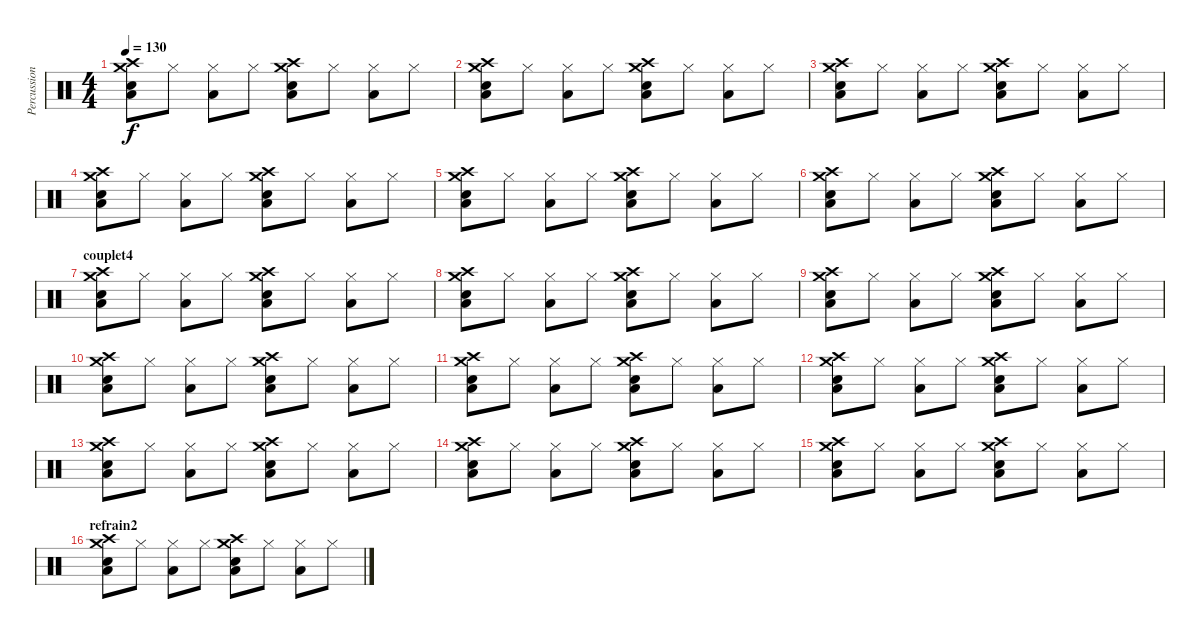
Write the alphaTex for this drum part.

\track ("Percussions" "Percussion") {instrument percussion}
\staff {score}
\articulation defaults
\ts (4 4)
\tempo 130
\clef neutral
\ks c
("Low Floor Tom (hit)" "Snare (hit) 2" "Crash high (hit)" "Crash medium (hit)").8{dy f} "Hi-Hat (closed)".8 ("Low Floor Tom (hit)" "Hi-Hat (closed)").8 "Hi-Hat (closed)".8 ("Low Floor Tom (hit)" "Snare (hit) 2" "Crash high (hit)" "Crash medium (hit)").8 "Hi-Hat (closed)".8 ("Low Floor Tom (hit)" "Hi-Hat (closed)").8 "Hi-Hat (closed)".8 |
("Low Floor Tom (hit)" "Snare (hit) 2" "Crash high (hit)" "Crash medium (hit)").8 "Hi-Hat (closed)".8 ("Low Floor Tom (hit)" "Hi-Hat (closed)").8 "Hi-Hat (closed)".8 ("Low Floor Tom (hit)" "Snare (hit) 2" "Crash high (hit)" "Crash medium (hit)").8 "Hi-Hat (closed)".8 ("Low Floor Tom (hit)" "Hi-Hat (closed)").8 "Hi-Hat (closed)".8 |
("Low Floor Tom (hit)" "Snare (hit) 2" "Crash high (hit)" "Crash medium (hit)").8 "Hi-Hat (closed)".8 ("Low Floor Tom (hit)" "Hi-Hat (closed)").8 "Hi-Hat (closed)".8 ("Low Floor Tom (hit)" "Snare (hit) 2" "Crash high (hit)" "Crash medium (hit)").8 "Hi-Hat (closed)".8 ("Low Floor Tom (hit)" "Hi-Hat (closed)").8 "Hi-Hat (closed)".8 |
("Low Floor Tom (hit)" "Snare (hit) 2" "Crash high (hit)" "Crash medium (hit)").8 "Hi-Hat (closed)".8 ("Low Floor Tom (hit)" "Hi-Hat (closed)").8 "Hi-Hat (closed)".8 ("Low Floor Tom (hit)" "Snare (hit) 2" "Crash high (hit)" "Crash medium (hit)").8 "Hi-Hat (closed)".8 ("Low Floor Tom (hit)" "Hi-Hat (closed)").8 "Hi-Hat (closed)".8 |
("Low Floor Tom (hit)" "Snare (hit) 2" "Crash high (hit)" "Crash medium (hit)").8 "Hi-Hat (closed)".8 ("Low Floor Tom (hit)" "Hi-Hat (closed)").8 "Hi-Hat (closed)".8 ("Low Floor Tom (hit)" "Snare (hit) 2" "Crash high (hit)" "Crash medium (hit)").8 "Hi-Hat (closed)".8 ("Low Floor Tom (hit)" "Hi-Hat (closed)").8 "Hi-Hat (closed)".8 |
("Low Floor Tom (hit)" "Snare (hit) 2" "Crash high (hit)" "Crash medium (hit)").8 "Hi-Hat (closed)".8 ("Low Floor Tom (hit)" "Hi-Hat (closed)").8 "Hi-Hat (closed)".8 ("Low Floor Tom (hit)" "Snare (hit) 2" "Crash high (hit)" "Crash medium (hit)").8 "Hi-Hat (closed)".8 ("Low Floor Tom (hit)" "Hi-Hat (closed)").8 "Hi-Hat (closed)".8 |
\section ("" "couplet4")
("Low Floor Tom (hit)" "Snare (hit) 2" "Crash high (hit)" "Crash medium (hit)").8 "Hi-Hat (closed)".8 ("Low Floor Tom (hit)" "Hi-Hat (closed)").8 "Hi-Hat (closed)".8 ("Low Floor Tom (hit)" "Snare (hit) 2" "Crash high (hit)" "Crash medium (hit)").8 "Hi-Hat (closed)".8 ("Low Floor Tom (hit)" "Hi-Hat (closed)").8 "Hi-Hat (closed)".8 |
("Low Floor Tom (hit)" "Snare (hit) 2" "Crash high (hit)" "Crash medium (hit)").8 "Hi-Hat (closed)".8 ("Low Floor Tom (hit)" "Hi-Hat (closed)").8 "Hi-Hat (closed)".8 ("Low Floor Tom (hit)" "Snare (hit) 2" "Crash high (hit)" "Crash medium (hit)").8 "Hi-Hat (closed)".8 ("Low Floor Tom (hit)" "Hi-Hat (closed)").8 "Hi-Hat (closed)".8 |
("Low Floor Tom (hit)" "Snare (hit) 2" "Crash high (hit)" "Crash medium (hit)").8 "Hi-Hat (closed)".8 ("Low Floor Tom (hit)" "Hi-Hat (closed)").8 "Hi-Hat (closed)".8 ("Low Floor Tom (hit)" "Snare (hit) 2" "Crash high (hit)" "Crash medium (hit)").8 "Hi-Hat (closed)".8 ("Low Floor Tom (hit)" "Hi-Hat (closed)").8 "Hi-Hat (closed)".8 |
("Low Floor Tom (hit)" "Snare (hit) 2" "Crash high (hit)" "Crash medium (hit)").8 "Hi-Hat (closed)".8 ("Low Floor Tom (hit)" "Hi-Hat (closed)").8 "Hi-Hat (closed)".8 ("Low Floor Tom (hit)" "Snare (hit) 2" "Crash high (hit)" "Crash medium (hit)").8 "Hi-Hat (closed)".8 ("Low Floor Tom (hit)" "Hi-Hat (closed)").8 "Hi-Hat (closed)".8 |
("Low Floor Tom (hit)" "Snare (hit) 2" "Crash high (hit)" "Crash medium (hit)").8 "Hi-Hat (closed)".8 ("Low Floor Tom (hit)" "Hi-Hat (closed)").8 "Hi-Hat (closed)".8 ("Low Floor Tom (hit)" "Snare (hit) 2" "Crash high (hit)" "Crash medium (hit)").8 "Hi-Hat (closed)".8 ("Low Floor Tom (hit)" "Hi-Hat (closed)").8 "Hi-Hat (closed)".8 |
("Low Floor Tom (hit)" "Snare (hit) 2" "Crash high (hit)" "Crash medium (hit)").8 "Hi-Hat (closed)".8 ("Low Floor Tom (hit)" "Hi-Hat (closed)").8 "Hi-Hat (closed)".8 ("Low Floor Tom (hit)" "Snare (hit) 2" "Crash high (hit)" "Crash medium (hit)").8 "Hi-Hat (closed)".8 ("Low Floor Tom (hit)" "Hi-Hat (closed)").8 "Hi-Hat (closed)".8 |
("Low Floor Tom (hit)" "Snare (hit) 2" "Crash high (hit)" "Crash medium (hit)").8 "Hi-Hat (closed)".8 ("Low Floor Tom (hit)" "Hi-Hat (closed)").8 "Hi-Hat (closed)".8 ("Low Floor Tom (hit)" "Snare (hit) 2" "Crash high (hit)" "Crash medium (hit)").8 "Hi-Hat (closed)".8 ("Low Floor Tom (hit)" "Hi-Hat (closed)").8 "Hi-Hat (closed)".8 |
("Low Floor Tom (hit)" "Snare (hit) 2" "Crash high (hit)" "Crash medium (hit)").8 "Hi-Hat (closed)".8 ("Low Floor Tom (hit)" "Hi-Hat (closed)").8 "Hi-Hat (closed)".8 ("Low Floor Tom (hit)" "Snare (hit) 2" "Crash high (hit)" "Crash medium (hit)").8 "Hi-Hat (closed)".8 ("Low Floor Tom (hit)" "Hi-Hat (closed)").8 "Hi-Hat (closed)".8 |
("Low Floor Tom (hit)" "Snare (hit) 2" "Crash high (hit)" "Crash medium (hit)").8 "Hi-Hat (closed)".8 ("Low Floor Tom (hit)" "Hi-Hat (closed)").8 "Hi-Hat (closed)".8 ("Low Floor Tom (hit)" "Snare (hit) 2" "Crash high (hit)" "Crash medium (hit)").8 "Hi-Hat (closed)".8 ("Low Floor Tom (hit)" "Hi-Hat (closed)").8 "Hi-Hat (closed)".8 |
\section ("" "refrain2")
("Low Floor Tom (hit)" "Snare (hit) 2" "Crash high (hit)" "Crash medium (hit)").8 "Hi-Hat (closed)".8 ("Low Floor Tom (hit)" "Hi-Hat (closed)").8 "Hi-Hat (closed)".8 ("Low Floor Tom (hit)" "Snare (hit) 2" "Crash high (hit)" "Crash medium (hit)").8 "Hi-Hat (closed)".8 ("Low Floor Tom (hit)" "Hi-Hat (closed)").8 "Hi-Hat (closed)".8
